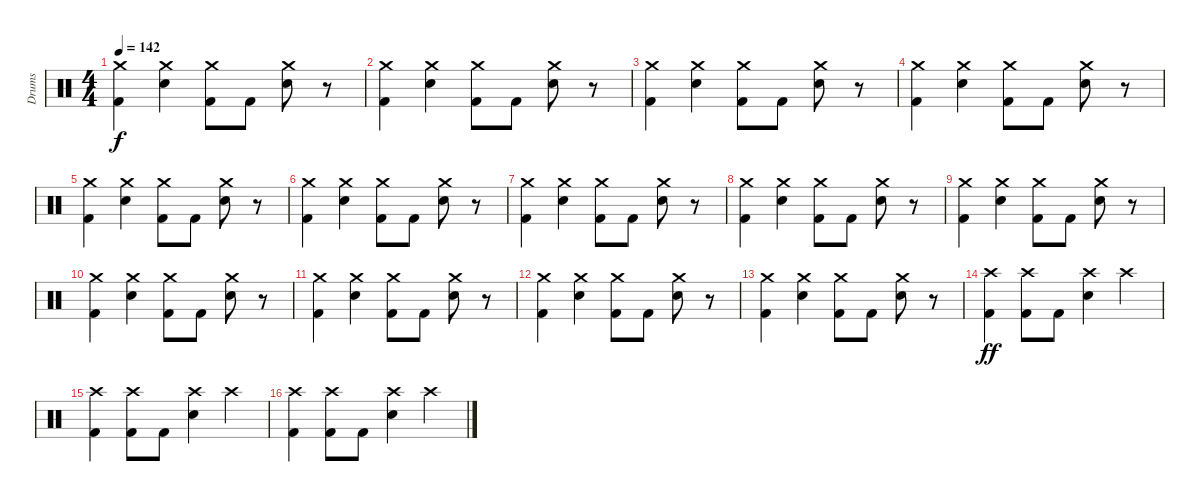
\track ("Drums" "Drums") {instrument percussion}
\staff {score}
\articulation defaults
\ts (4 4)
\tempo 142
\clef neutral
\ks c
("Crash medium (hit)" "Kick (hit) 2").4{dy f} ("Crash medium (hit)" "Snare (hit) 2").4 ("Crash medium (hit)" "Kick (hit) 2").8 "Kick (hit) 2".8 ("Crash medium (hit)" "Snare (hit) 2").8 r.8 |
("Crash medium (hit)" "Kick (hit) 2").4 ("Crash medium (hit)" "Snare (hit) 2").4 ("Crash medium (hit)" "Kick (hit) 2").8 "Kick (hit) 2".8 ("Crash medium (hit)" "Snare (hit) 2").8 r.8 |
("Crash medium (hit)" "Kick (hit) 2").4 ("Crash medium (hit)" "Snare (hit) 2").4 ("Crash medium (hit)" "Kick (hit) 2").8 "Kick (hit) 2".8 ("Crash medium (hit)" "Snare (hit) 2").8 r.8 |
("Crash medium (hit)" "Kick (hit) 2").4 ("Crash medium (hit)" "Snare (hit) 2").4 ("Crash medium (hit)" "Kick (hit) 2").8 "Kick (hit) 2".8 ("Crash medium (hit)" "Snare (hit) 2").8 r.8 |
("Crash medium (hit)" "Kick (hit) 2").4 ("Crash medium (hit)" "Snare (hit) 2").4 ("Crash medium (hit)" "Kick (hit) 2").8 "Kick (hit) 2".8 ("Crash medium (hit)" "Snare (hit) 2").8 r.8 |
("Crash medium (hit)" "Kick (hit) 2").4 ("Crash medium (hit)" "Snare (hit) 2").4 ("Crash medium (hit)" "Kick (hit) 2").8 "Kick (hit) 2".8 ("Crash medium (hit)" "Snare (hit) 2").8 r.8 |
("Crash medium (hit)" "Kick (hit) 2").4 ("Crash medium (hit)" "Snare (hit) 2").4 ("Crash medium (hit)" "Kick (hit) 2").8 "Kick (hit) 2".8 ("Crash medium (hit)" "Snare (hit) 2").8 r.8 |
("Crash medium (hit)" "Kick (hit) 2").4 ("Crash medium (hit)" "Snare (hit) 2").4 ("Crash medium (hit)" "Kick (hit) 2").8 "Kick (hit) 2".8 ("Crash medium (hit)" "Snare (hit) 2").8 r.8 |
("Crash medium (hit)" "Kick (hit) 2").4 ("Crash medium (hit)" "Snare (hit) 2").4 ("Crash medium (hit)" "Kick (hit) 2").8 "Kick (hit) 2".8 ("Crash medium (hit)" "Snare (hit) 2").8 r.8 |
("Crash medium (hit)" "Kick (hit) 2").4 ("Crash medium (hit)" "Snare (hit) 2").4 ("Crash medium (hit)" "Kick (hit) 2").8 "Kick (hit) 2".8 ("Crash medium (hit)" "Snare (hit) 2").8 r.8 |
("Crash medium (hit)" "Kick (hit) 2").4 ("Crash medium (hit)" "Snare (hit) 2").4 ("Crash medium (hit)" "Kick (hit) 2").8 "Kick (hit) 2".8 ("Crash medium (hit)" "Snare (hit) 2").8 r.8 |
("Crash medium (hit)" "Kick (hit) 2").4 ("Crash medium (hit)" "Snare (hit) 2").4 ("Crash medium (hit)" "Kick (hit) 2").8 "Kick (hit) 2".8 ("Crash medium (hit)" "Snare (hit) 2").8 r.8 |
("Crash medium (hit)" "Kick (hit) 2").4 ("Crash medium (hit)" "Snare (hit) 2").4 ("Crash medium (hit)" "Kick (hit) 2").8 "Kick (hit) 2".8 ("Crash medium (hit)" "Snare (hit) 2").8 r.8 |
("Crash high (hit)" "Kick (hit) 2").4{dy ff} ("Crash high (hit)" "Kick (hit) 2").8 "Kick (hit) 2".8 ("Crash high (hit)" "Snare (hit) 2").4 "Crash high (hit)".4 |
("Crash high (hit)" "Kick (hit) 2").4 ("Crash high (hit)" "Kick (hit) 2").8 "Kick (hit) 2".8 ("Crash high (hit)" "Snare (hit) 2").4 "Crash high (hit)".4 |
("Crash high (hit)" "Kick (hit) 2").4 ("Crash high (hit)" "Kick (hit) 2").8 "Kick (hit) 2".8 ("Crash high (hit)" "Snare (hit) 2").4 "Crash high (hit)".4
